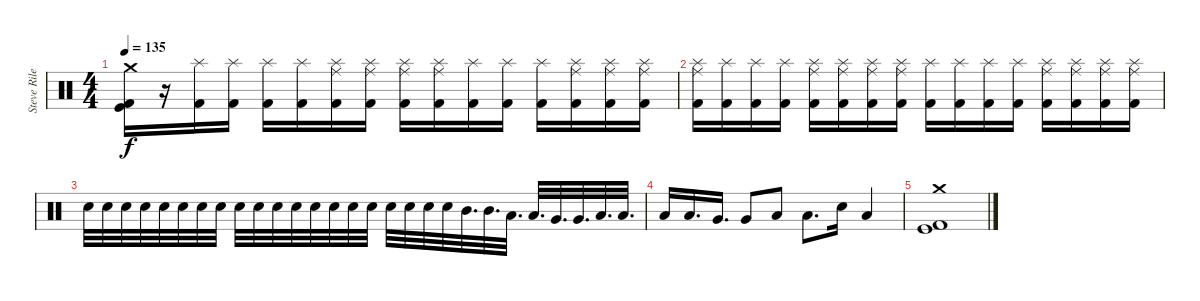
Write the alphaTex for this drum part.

\track ("Steve Riley" "Steve Rile") {instrument percussion}
\staff {score}
\articulation defaults
\ts (4 4)
\tempo 135
\clef neutral
\ks c
("Crash medium (hit)" "Kick (hit)" "Kick (hit) 2").16{dy f} r.16 ("Splash (hit)" "Kick (hit) 2").16 ("Splash (hit)" "Kick (hit) 2").16 ("Splash (hit)" "Kick (hit) 2").16 ("Splash (hit)" "Kick (hit) 2").16 ("Ride (middle)" "Splash (hit)" "Kick (hit) 2").16 ("Ride (middle)" "Splash (hit)" "Kick (hit) 2").16 ("Ride (middle)" "Splash (hit)" "Kick (hit) 2").16 ("Ride (middle)" "Splash (hit)" "Kick (hit) 2").16 ("Splash (hit)" "Kick (hit) 2").16 ("Splash (hit)" "Kick (hit) 2").16 ("Splash (hit)" "Kick (hit) 2").16 ("Ride (middle)" "Splash (hit)" "Kick (hit) 2").16 ("Ride (middle)" "Splash (hit)" "Kick (hit) 2").16 ("Ride (middle)" "Splash (hit)" "Kick (hit) 2").16 |
("Ride (middle)" "Splash (hit)" "Kick (hit) 2").16 ("Splash (hit)" "Kick (hit) 2").16 ("Splash (hit)" "Kick (hit) 2").16 ("Splash (hit)" "Kick (hit) 2").16 ("Ride (middle)" "Splash (hit)" "Kick (hit) 2").16 ("Ride (middle)" "Splash (hit)" "Kick (hit) 2").16 ("Ride (middle)" "Splash (hit)" "Kick (hit) 2").16 ("Ride (middle)" "Splash (hit)" "Kick (hit) 2").16 ("Splash (hit)" "Kick (hit) 2").16 ("Splash (hit)" "Kick (hit) 2").16 ("Splash (hit)" "Kick (hit) 2").16 ("Splash (hit)" "Kick (hit) 2").16 ("Ride (middle)" "Splash (hit)" "Kick (hit) 2").16 ("Ride (middle)" "Splash (hit)" "Kick (hit) 2").16 ("Ride (middle)" "Splash (hit)" "Kick (hit) 2").16 ("Ride (middle)" "Splash (hit)" "Kick (hit) 2").16 |
"Snare (hit) 2".32 "Snare (hit) 2".32 "Snare (hit) 2".32 "Snare (hit) 2".32 "Snare (hit) 2".32 "Snare (hit) 2".32 "Snare (hit) 2".32 "Snare (hit) 2".32 "Snare (hit) 2".32 "Snare (hit) 2".32 "Snare (hit) 2".32 "Snare (hit) 2".32 "Snare (hit) 2".32 "Snare (hit) 2".32 "Snare (hit) 2".32 "Snare (hit) 2".32 "Snare (hit) 2".32 "Snare (hit) 2".32 "Snare (hit) 2".32 "Snare (hit) 2".32 "Mid Tom (hit)".32{d} "Mid Tom (hit)".32{d} "Low Tom (hit)".32{d} "Low Tom (hit)".32{d} "Very Low Tom (hit)".32{d} "Very Low Tom (hit)".32{d} "Low Floor Tom (hit)".32{d} "Low Floor Tom (hit)".32{d} |
"Low Tom (hit)".16 "Low Tom (hit)".16{d} "Very Low Tom (hit)".16{d} "Very Low Tom (hit)".8 "Low Floor Tom (hit)".8 "Low Floor Tom (hit)".8{d} "Snare (hit) 2".16 "Low Floor Tom (hit)".4 |
("Crash medium (hit)" "Kick (hit)" "Kick (hit) 2").1
